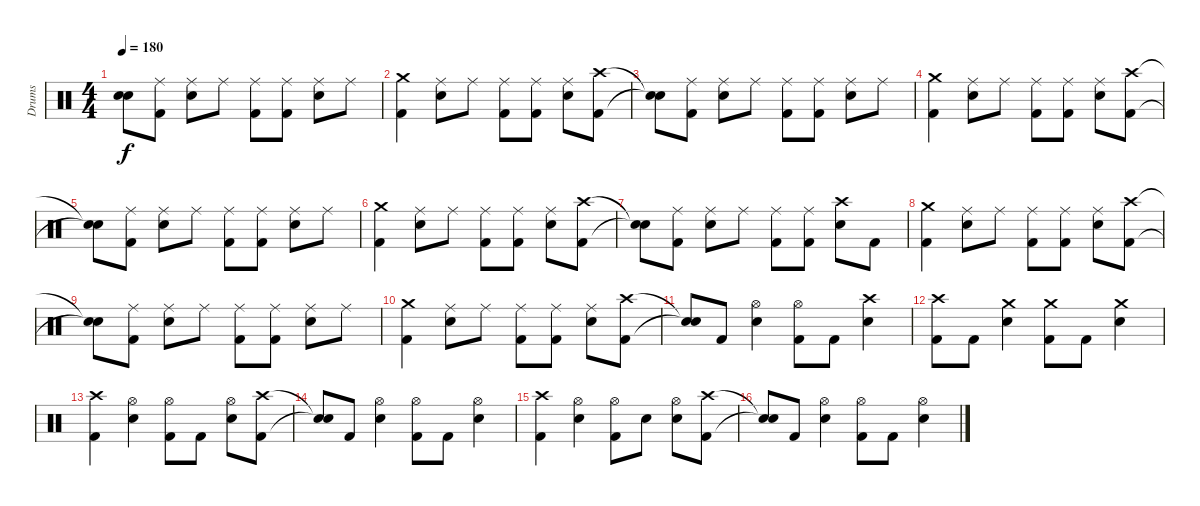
\track ("Drums" "Drums") {instrument percussion}
\staff {score}
\articulation defaults
\ts (4 4)
\tempo 180
\clef neutral
\ks c
("Snare (hit)"{t} "Snare (hit)"{t}).8{dy f} ("Ride (middle)" "Kick (hit) 2").8 ("Ride (middle)" "Electric Snare (hit)").8 "Ride (middle)".8 ("Ride (middle)" "Kick (hit) 2").8 ("Ride (middle)" "Kick (hit) 2").8 ("Ride (middle)" "Electric Snare (hit)").8 "Ride (middle)".8 |
("Crash medium (hit)" "Kick (hit) 2").4 ("Ride (middle)" "Electric Snare (hit)").8 "Ride (middle)".8 ("Ride (middle)" "Kick (hit) 2").8 ("Ride (middle)" "Kick (hit) 2").8 ("Ride (middle)" "Electric Snare (hit)").8 ("Crash high (hit)" "Kick (hit) 2").8 |
("Snare (hit)"{t} "Snare (hit)"{t}).8 ("Ride (middle)" "Kick (hit) 2").8 ("Ride (middle)" "Electric Snare (hit)").8 "Ride (middle)".8 ("Ride (middle)" "Kick (hit) 2").8 ("Ride (middle)" "Kick (hit) 2").8 ("Ride (middle)" "Electric Snare (hit)").8 "Ride (middle)".8 |
("Crash medium (hit)" "Kick (hit) 2").4 ("Ride (middle)" "Electric Snare (hit)").8 "Ride (middle)".8 ("Ride (middle)" "Kick (hit) 2").8 ("Ride (middle)" "Kick (hit) 2").8 ("Ride (middle)" "Electric Snare (hit)").8 ("Crash high (hit)" "Kick (hit) 2").8 |
("Snare (hit)"{t} "Snare (hit)"{t}).8 ("Ride (middle)" "Kick (hit) 2").8 ("Ride (middle)" "Electric Snare (hit)").8 "Ride (middle)".8 ("Ride (middle)" "Kick (hit) 2").8 ("Ride (middle)" "Kick (hit) 2").8 ("Ride (middle)" "Electric Snare (hit)").8 "Ride (middle)".8 |
("Crash medium (hit)" "Kick (hit) 2").4 ("Ride (middle)" "Electric Snare (hit)").8 "Ride (middle)".8 ("Ride (middle)" "Kick (hit) 2").8 ("Ride (middle)" "Kick (hit) 2").8 ("Ride (middle)" "Electric Snare (hit)").8 ("Crash high (hit)" "Kick (hit) 2").8 |
("Snare (hit)"{t} "Snare (hit)"{t}).8 ("Ride (middle)" "Kick (hit) 2").8 ("Ride (middle)" "Electric Snare (hit)").8 "Ride (middle)".8 ("Ride (middle)" "Kick (hit) 2").8 ("Ride (middle)" "Kick (hit) 2").8 ("Crash high (hit)" "Electric Snare (hit)").8 "Kick (hit) 2".8 |
("Crash medium (hit)" "Kick (hit) 2").4 ("Ride (middle)" "Electric Snare (hit)").8 "Ride (middle)".8 ("Ride (middle)" "Kick (hit) 2").8 ("Ride (middle)" "Kick (hit) 2").8 ("Ride (middle)" "Electric Snare (hit)").8 ("Crash high (hit)" "Kick (hit) 2").8 |
("Snare (hit)"{t} "Snare (hit)"{t}).8 ("Ride (middle)" "Kick (hit) 2").8 ("Ride (middle)" "Electric Snare (hit)").8 "Ride (middle)".8 ("Ride (middle)" "Kick (hit) 2").8 ("Ride (middle)" "Kick (hit) 2").8 ("Ride (middle)" "Electric Snare (hit)").8 "Ride (middle)".8 |
("Crash medium (hit)" "Kick (hit) 2").4 ("Ride (middle)" "Electric Snare (hit)").8 "Ride (middle)".8 ("Ride (middle)" "Kick (hit) 2").8 ("Ride (middle)" "Kick (hit) 2").8 ("Ride (middle)" "Electric Snare (hit)").8 ("Crash high (hit)" "Kick (hit) 2").8 |
("Snare (hit)"{t} "Snare (hit)"{t}).8 "Kick (hit) 2".8 ("Hi-Hat (open)" "Electric Snare (hit)").4 ("Hi-Hat (open)" "Kick (hit) 2").8 "Kick (hit) 2".8 ("Crash high (hit)" "Electric Snare (hit)").4 |
("Crash high (hit)" "Kick (hit) 2").8 "Kick (hit) 2".8 ("Crash medium (hit)" "Electric Snare (hit)").4 ("Crash medium (hit)" "Kick (hit) 2").8 "Kick (hit) 2".8 ("Crash medium (hit)" "Electric Snare (hit)").4 |
("Crash high (hit)" "Kick (hit) 2").4 ("Hi-Hat (open)" "Electric Snare (hit)").4 ("Hi-Hat (open)" "Kick (hit) 2").8 "Kick (hit) 2".8 ("Hi-Hat (open)" "Electric Snare (hit)").8 ("Crash high (hit)" "Kick (hit) 2").8 |
("Snare (hit)"{t} "Snare (hit)"{t}).8 "Kick (hit) 2".8 ("Hi-Hat (open)" "Electric Snare (hit)").4 ("Hi-Hat (open)" "Kick (hit) 2").8 "Kick (hit) 2".8 ("Hi-Hat (open)" "Electric Snare (hit)").4 |
("Crash high (hit)" "Kick (hit) 2").4 ("Hi-Hat (open)" "Electric Snare (hit)").4 ("Hi-Hat (open)" "Kick (hit) 2").8 "Electric Snare (hit)".8 ("Hi-Hat (open)" "Electric Snare (hit)").8 ("Crash high (hit)" "Kick (hit) 2").8 |
("Snare (hit)"{t} "Snare (hit)"{t}).8 "Kick (hit) 2".8 ("Hi-Hat (open)" "Electric Snare (hit)").4 ("Hi-Hat (open)" "Kick (hit) 2").8 "Kick (hit) 2".8 ("Hi-Hat (open)" "Electric Snare (hit)").4
